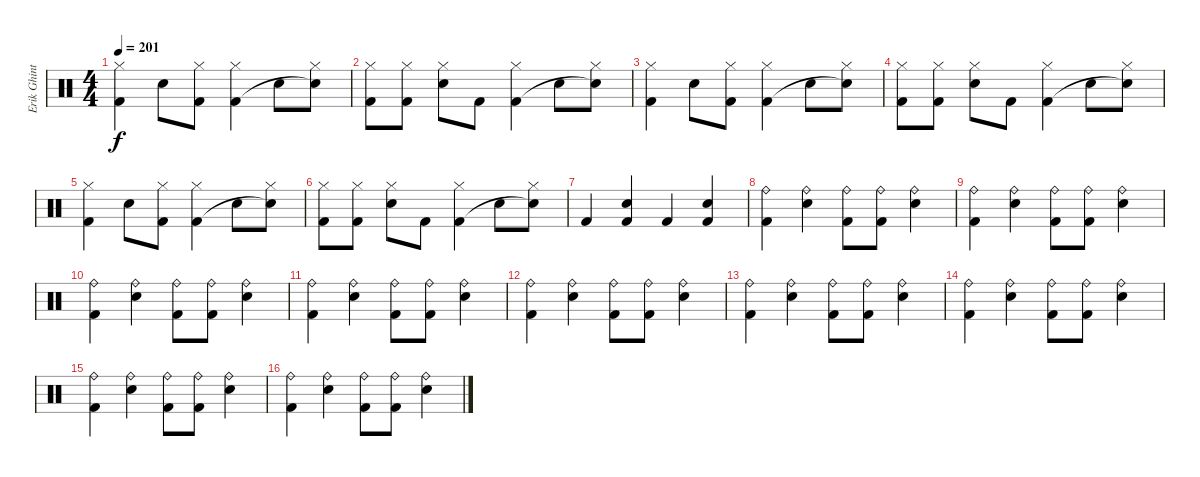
\track ("Erik Ghint" "Erik Ghint") {instrument percussion}
\staff {score}
\articulation defaults
\ts (4 4)
\tempo 201
\clef neutral
\ks c
("Hi-Hat (closed)" "Kick (hit) 2").4{dy f} "Snare (hit) 2".8 ("Hi-Hat (closed)" "Kick (hit) 2").8 ("Hi-Hat (closed)" "Kick (hit) 2").4 "Snare (hit) 2".8 ("Hi-Hat (closed)" "Snare (hit)"{t}).8 |
("Hi-Hat (closed)" "Kick (hit) 2").8 ("Hi-Hat (closed)" "Kick (hit) 2").8 ("Hi-Hat (closed)" "Snare (hit) 2").8 "Kick (hit) 2".8 ("Hi-Hat (closed)" "Kick (hit) 2").4 "Snare (hit) 2".8 ("Hi-Hat (closed)" "Snare (hit)"{t}).8 |
("Hi-Hat (closed)" "Kick (hit) 2").4 "Snare (hit) 2".8 ("Hi-Hat (closed)" "Kick (hit) 2").8 ("Hi-Hat (closed)" "Kick (hit) 2").4 "Snare (hit) 2".8 ("Hi-Hat (closed)" "Snare (hit)"{t}).8 |
("Hi-Hat (closed)" "Kick (hit) 2").8 ("Hi-Hat (closed)" "Kick (hit) 2").8 ("Hi-Hat (closed)" "Snare (hit) 2").8 "Kick (hit) 2".8 ("Hi-Hat (closed)" "Kick (hit) 2").4 "Snare (hit) 2".8 ("Hi-Hat (closed)" "Snare (hit)"{t}).8 |
("Hi-Hat (closed)" "Kick (hit) 2").4 "Snare (hit) 2".8 ("Hi-Hat (closed)" "Kick (hit) 2").8 ("Hi-Hat (closed)" "Kick (hit) 2").4 "Snare (hit) 2".8 ("Hi-Hat (closed)" "Snare (hit)"{t}).8 |
("Hi-Hat (closed)" "Kick (hit) 2").8 ("Hi-Hat (closed)" "Kick (hit) 2").8 ("Hi-Hat (closed)" "Snare (hit) 2").8 "Kick (hit) 2".8 ("Hi-Hat (closed)" "Kick (hit) 2").4 "Snare (hit) 2".8 ("Hi-Hat (closed)" "Snare (hit)"{t}).8 |
"Kick (hit) 2".4 ("Snare (hit) 2" "Kick (hit) 2").4 "Kick (hit) 2".4 ("Snare (hit) 2" "Kick (hit) 2").4 |
("Ride (bell)" "Kick (hit) 2").4 ("Ride (bell)" "Snare (hit) 2").4 ("Ride (bell)" "Kick (hit) 2").8 ("Ride (bell)" "Kick (hit) 2").8 ("Ride (bell)" "Snare (hit) 2").4 |
("Ride (bell)" "Kick (hit) 2").4 ("Ride (bell)" "Snare (hit) 2").4 ("Ride (bell)" "Kick (hit) 2").8 ("Ride (bell)" "Kick (hit) 2").8 ("Ride (bell)" "Snare (hit) 2").4 |
("Ride (bell)" "Kick (hit) 2").4 ("Ride (bell)" "Snare (hit) 2").4 ("Ride (bell)" "Kick (hit) 2").8 ("Ride (bell)" "Kick (hit) 2").8 ("Ride (bell)" "Snare (hit) 2").4 |
("Ride (bell)" "Kick (hit) 2").4 ("Ride (bell)" "Snare (hit) 2").4 ("Ride (bell)" "Kick (hit) 2").8 ("Ride (bell)" "Kick (hit) 2").8 ("Ride (bell)" "Snare (hit) 2").4 |
("Ride (bell)" "Kick (hit) 2").4 ("Ride (bell)" "Snare (hit) 2").4 ("Ride (bell)" "Kick (hit) 2").8 ("Ride (bell)" "Kick (hit) 2").8 ("Ride (bell)" "Snare (hit) 2").4 |
("Ride (bell)" "Kick (hit) 2").4 ("Ride (bell)" "Snare (hit) 2").4 ("Ride (bell)" "Kick (hit) 2").8 ("Ride (bell)" "Kick (hit) 2").8 ("Ride (bell)" "Snare (hit) 2").4 |
("Ride (bell)" "Kick (hit) 2").4 ("Ride (bell)" "Snare (hit) 2").4 ("Ride (bell)" "Kick (hit) 2").8 ("Ride (bell)" "Kick (hit) 2").8 ("Ride (bell)" "Snare (hit) 2").4 |
("Ride (bell)" "Kick (hit) 2").4 ("Ride (bell)" "Snare (hit) 2").4 ("Ride (bell)" "Kick (hit) 2").8 ("Ride (bell)" "Kick (hit) 2").8 ("Ride (bell)" "Snare (hit) 2").4 |
("Ride (bell)" "Kick (hit) 2").4 ("Ride (bell)" "Snare (hit) 2").4 ("Ride (bell)" "Kick (hit) 2").8 ("Ride (bell)" "Kick (hit) 2").8 ("Ride (bell)" "Snare (hit) 2").4
